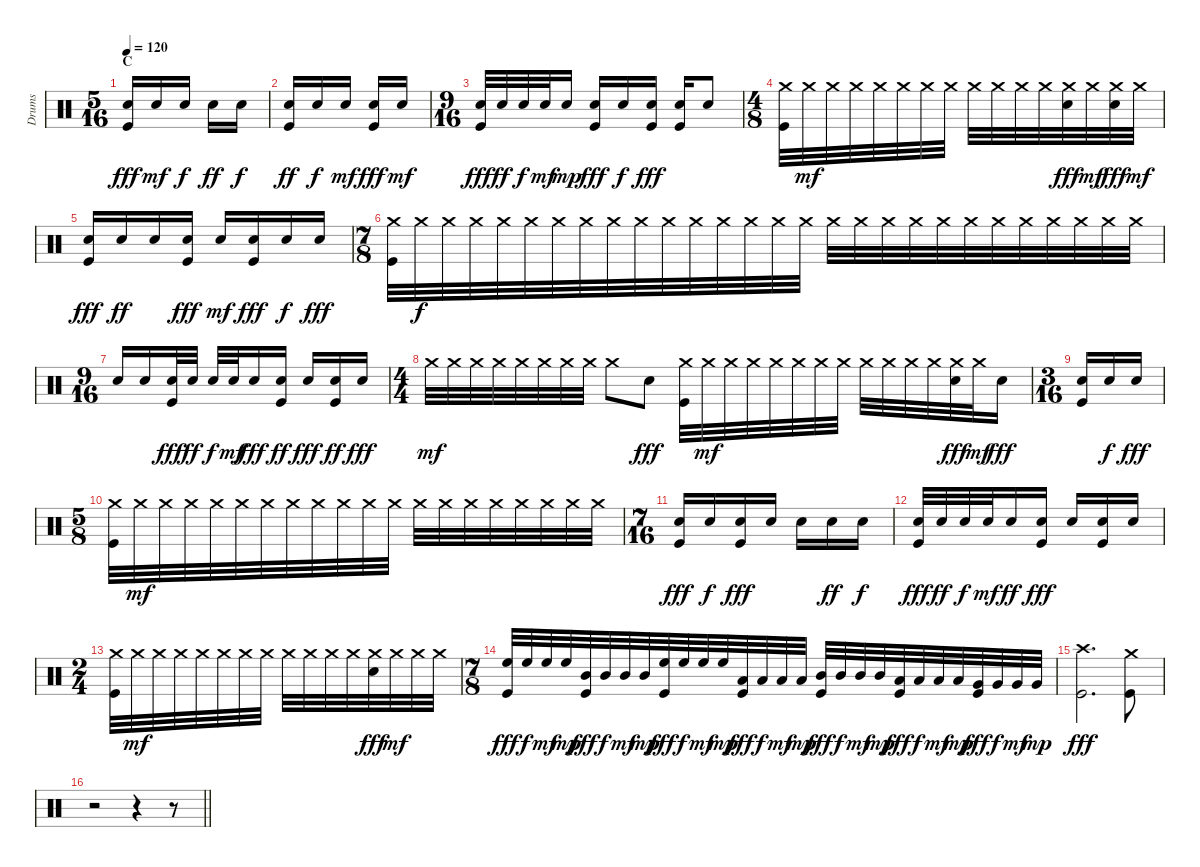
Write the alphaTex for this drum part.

\track ("Drums" "Drums") {instrument percussion}
\staff {score}
\articulation defaults
\ts (5 16)
\section ("" "C")
\tempo 120
\clef neutral
\ks c
("Snare (hit) 2" "Kick (hit)").16{dy fff} "Snare (hit) 2".16{dy mf} "Snare (hit) 2".16{dy f} "Snare (hit) 2".16{dy ff} "Snare (hit) 2".16{dy f} |
("Snare (hit) 2" "Kick (hit)").16{dy ff} "Snare (hit) 2".16{dy f} "Snare (hit) 2".16{dy mf} ("Snare (hit) 2" "Kick (hit)").16{dy fff} "Snare (hit) 2".16{dy mf} |
\ts (9 16)
("Snare (hit) 2" "Kick (hit)").32{dy fff} "Snare (hit) 2".32{dy ff} "Snare (hit) 2".32{dy f} "Snare (hit) 2".32{dy mf} "Snare (hit) 2".16{dy mp} ("Snare (hit) 2" "Kick (hit)").16{dy fff} "Snare (hit) 2".16{dy f} ("Snare (hit) 2" "Kick (hit)").16{dy fff} ("Snare (hit) 2" "Kick (hit)").16 "Snare (hit) 2".8 |
\ts (4 8)
("Crash medium (hit)" "Kick (hit)").32 "Crash medium (hit)".32{dy mf} "Crash medium (hit)".32 "Crash medium (hit)".32 "Crash medium (hit)".32 "Crash medium (hit)".32 "Crash medium (hit)".32 "Crash medium (hit)".32 "Crash medium (hit)".32 "Crash medium (hit)".32 "Crash medium (hit)".32 "Crash medium (hit)".32 ("Crash medium (hit)" "Snare (hit) 2").32{dy fff} "Crash medium (hit)".32{dy mf} ("Crash medium (hit)" "Snare (hit) 2").32{dy fff} "Crash medium (hit)".32{dy mf} |
("Snare (hit) 2" "Kick (hit)").16{dy fff} "Snare (hit) 2".16{dy ff} "Snare (hit) 2".16 ("Snare (hit) 2" "Kick (hit)").16{dy fff} "Snare (hit) 2".16{dy mf} ("Snare (hit) 2" "Kick (hit)").16{dy fff} "Snare (hit) 2".16{dy f} "Snare (hit) 2".16{dy fff} |
\ts (7 8)
("Crash medium (hit)" "Kick (hit)").32 "Crash medium (hit)".32{dy f} "Crash medium (hit)".32 "Crash medium (hit)".32 "Crash medium (hit)".32 "Crash medium (hit)".32 "Crash medium (hit)".32 "Crash medium (hit)".32 "Crash medium (hit)".32 "Crash medium (hit)".32 "Crash medium (hit)".32 "Crash medium (hit)".32 "Crash medium (hit)".32 "Crash medium (hit)".32 "Crash medium (hit)".32 "Crash medium (hit)".32 "Crash medium (hit)".32 "Crash medium (hit)".32 "Crash medium (hit)".32 "Crash medium (hit)".32 "Crash medium (hit)".32 "Crash medium (hit)".32 "Crash medium (hit)".32 "Crash medium (hit)".32 "Crash medium (hit)".32 "Crash medium (hit)".32 "Crash medium (hit)".32 "Crash medium (hit)".32 |
\ts (9 16)
"Snare (hit) 2".16 "Snare (hit) 2".16 ("Snare (hit) 2" "Kick (hit)").32{dy fff} "Snare (hit) 2".32{dy ff} "Snare (hit) 2".32{dy f} "Snare (hit) 2".32{dy mf} "Snare (hit) 2".16{dy fff} ("Snare (hit) 2" "Kick (hit)").16{dy ff} "Snare (hit) 2".16{dy fff} ("Snare (hit) 2" "Kick (hit)").16{dy ff} "Snare (hit) 2".16{dy fff} |
\ts (4 4)
"Crash medium (hit)".32{dy mf} "Crash medium (hit)".32 "Crash medium (hit)".32 "Crash medium (hit)".32 "Crash medium (hit)".32 "Crash medium (hit)".32 "Crash medium (hit)".32 "Crash medium (hit)".32 "Crash medium (hit)".8 "Snare (hit) 2".8{dy fff} ("Crash medium (hit)" "Kick (hit)").32 "Crash medium (hit)".32{dy mf} "Crash medium (hit)".32 "Crash medium (hit)".32 "Crash medium (hit)".32 "Crash medium (hit)".32 "Crash medium (hit)".32 "Crash medium (hit)".32 "Crash medium (hit)".32 "Crash medium (hit)".32 "Crash medium (hit)".32 "Crash medium (hit)".32 ("Crash medium (hit)" "Snare (hit) 2").32{dy fff} "Crash medium (hit)".32{dy mf} "Snare (hit) 2".16{dy fff} |
\ts (3 16)
("Snare (hit) 2" "Kick (hit)").16 "Snare (hit) 2".16{dy f} "Snare (hit) 2".16{dy fff} |
\ts (5 8)
("Crash medium (hit)" "Kick (hit)").32 "Crash medium (hit)".32{dy mf} "Crash medium (hit)".32 "Crash medium (hit)".32 "Crash medium (hit)".32 "Crash medium (hit)".32 "Crash medium (hit)".32 "Crash medium (hit)".32 "Crash medium (hit)".32 "Crash medium (hit)".32 "Crash medium (hit)".32 "Crash medium (hit)".32 "Crash medium (hit)".32 "Crash medium (hit)".32 "Crash medium (hit)".32 "Crash medium (hit)".32 "Crash medium (hit)".32 "Crash medium (hit)".32 "Crash medium (hit)".32 "Crash medium (hit)".32 |
\ts (7 16)
("Snare (hit) 2" "Kick (hit)").16{dy fff} "Snare (hit) 2".16{dy f} ("Snare (hit) 2" "Kick (hit)").16{dy fff} "Snare (hit) 2".16 "Snare (hit) 2".16 "Snare (hit) 2".16{dy ff} "Snare (hit) 2".16{dy f} |
("Snare (hit) 2" "Kick (hit)").32{dy fff} "Snare (hit) 2".32{dy ff} "Snare (hit) 2".32{dy f} "Snare (hit) 2".32{dy mf} "Snare (hit) 2".16{dy ff} ("Snare (hit) 2" "Kick (hit)").16{dy fff} "Snare (hit) 2".16 ("Snare (hit) 2" "Kick (hit)").16 "Snare (hit) 2".16 |
\ts (2 4)
("Crash medium (hit)" "Kick (hit)").32 "Crash medium (hit)".32{dy mf} "Crash medium (hit)".32 "Crash medium (hit)".32 "Crash medium (hit)".32 "Crash medium (hit)".32 "Crash medium (hit)".32 "Crash medium (hit)".32 "Crash medium (hit)".32 "Crash medium (hit)".32 "Crash medium (hit)".32 "Crash medium (hit)".32 ("Crash medium (hit)" "Snare (hit) 2").32{dy fff} "Crash medium (hit)".32{dy mf} "Crash medium (hit)".32 "Crash medium (hit)".32 |
\ts (7 8)
("High Floor Tom (hit)" "Kick (hit)").32{dy fff} "High Floor Tom (hit)".32{dy f} "High Floor Tom (hit)".32{dy mf} "High Floor Tom (hit)".32{dy mp} ("Mid Tom (hit)" "Kick (hit)").32{dy fff} "Mid Tom (hit)".32{dy f} "Mid Tom (hit)".32{dy mf} "Mid Tom (hit)".32{dy mp} ("High Floor Tom (hit)" "Kick (hit)").32{dy fff} "High Floor Tom (hit)".32{dy f} "High Floor Tom (hit)".32{dy mf} "High Floor Tom (hit)".32{dy mp} ("Low Tom (hit)" "Kick (hit)").32{dy fff} "Low Tom (hit)".32{dy f} "Low Tom (hit)".32{dy mf} "Low Tom (hit)".32{dy mp} ("Mid Tom (hit)" "Kick (hit)").32{dy fff} "Mid Tom (hit)".32{dy f} "Mid Tom (hit)".32{dy mf} "Mid Tom (hit)".32{dy mp} ("Low Tom (hit)" "Kick (hit)").32{dy fff} "Low Tom (hit)".32{dy f} "Low Tom (hit)".32{dy mf} "Low Tom (hit)".32{dy mp} ("Very Low Tom (hit)" "Kick (hit)").32{dy fff} "Very Low Tom (hit)".32{dy f} "Very Low Tom (hit)".32{dy mf} "Very Low Tom (hit)".32{dy mp} |
("Crash high (hit)" "Kick (hit)").2{d dy fff} ("Crash medium (hit)" "Kick (hit)").8 |
\barLineRight lightlight
r.2 r.4 r.8
